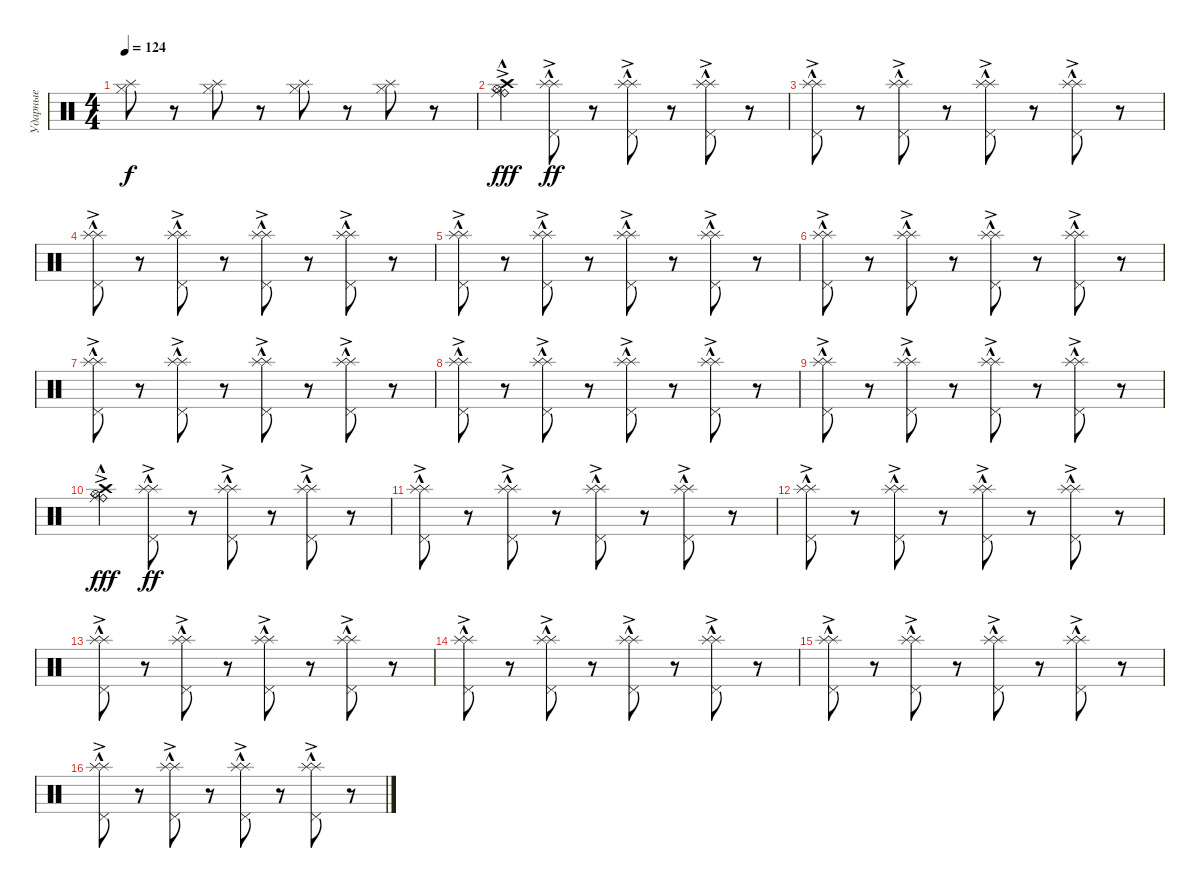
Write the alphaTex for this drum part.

\track ("Ударные" "Ударные") {instrument percussion}
\staff {score}
\articulation defaults
\ts (4 4)
\tempo 124
\clef neutral
\ks c
("Hi-Hat (closed)" "Splash (hit)").8{dy f} r.8 ("Hi-Hat (closed)" "Splash (hit)").8 r.8 ("Hi-Hat (closed)" "Splash (hit)").8 r.8 ("Hi-Hat (closed)" "Splash (hit)").8 r.8 |
("Ride (bell)"{ac} "Ride (middle)"{hac} "Crash high (hit)" "Hi-Hat (open)").4{dy fff} ("Pedal Hi-Hat (hit)" "Splash (hit)"{hac} "Splash (hit)"{ac}).8{dy ff} r.8 ("Pedal Hi-Hat (hit)" "Splash (hit)"{hac} "Splash (hit)"{ac}).8 r.8 ("Pedal Hi-Hat (hit)" "Splash (hit)"{hac} "Splash (hit)"{ac}).8 r.8 |
("Pedal Hi-Hat (hit)" "Splash (hit)"{hac} "Splash (hit)"{ac}).8 r.8 ("Pedal Hi-Hat (hit)" "Splash (hit)"{hac} "Splash (hit)"{ac}).8 r.8 ("Pedal Hi-Hat (hit)" "Splash (hit)"{hac} "Splash (hit)"{ac}).8 r.8 ("Pedal Hi-Hat (hit)" "Splash (hit)"{hac} "Splash (hit)"{ac}).8 r.8 |
("Pedal Hi-Hat (hit)" "Splash (hit)"{hac} "Splash (hit)"{ac}).8 r.8 ("Pedal Hi-Hat (hit)" "Splash (hit)"{hac} "Splash (hit)"{ac}).8 r.8 ("Pedal Hi-Hat (hit)" "Splash (hit)"{hac} "Splash (hit)"{ac}).8 r.8 ("Pedal Hi-Hat (hit)" "Splash (hit)"{hac} "Splash (hit)"{ac}).8 r.8 |
("Pedal Hi-Hat (hit)" "Splash (hit)"{hac} "Splash (hit)"{ac}).8 r.8 ("Pedal Hi-Hat (hit)" "Splash (hit)"{hac} "Splash (hit)"{ac}).8 r.8 ("Pedal Hi-Hat (hit)" "Splash (hit)"{hac} "Splash (hit)"{ac}).8 r.8 ("Pedal Hi-Hat (hit)" "Splash (hit)"{hac} "Splash (hit)"{ac}).8 r.8 |
("Pedal Hi-Hat (hit)" "Splash (hit)"{hac} "Splash (hit)"{ac}).8 r.8 ("Pedal Hi-Hat (hit)" "Splash (hit)"{hac} "Splash (hit)"{ac}).8 r.8 ("Pedal Hi-Hat (hit)" "Splash (hit)"{hac} "Splash (hit)"{ac}).8 r.8 ("Pedal Hi-Hat (hit)" "Splash (hit)"{hac} "Splash (hit)"{ac}).8 r.8 |
("Pedal Hi-Hat (hit)" "Splash (hit)"{hac} "Splash (hit)"{ac}).8 r.8 ("Pedal Hi-Hat (hit)" "Splash (hit)"{hac} "Splash (hit)"{ac}).8 r.8 ("Pedal Hi-Hat (hit)" "Splash (hit)"{hac} "Splash (hit)"{ac}).8 r.8 ("Pedal Hi-Hat (hit)" "Splash (hit)"{hac} "Splash (hit)"{ac}).8 r.8 |
("Pedal Hi-Hat (hit)" "Splash (hit)"{hac} "Splash (hit)"{ac}).8 r.8 ("Pedal Hi-Hat (hit)" "Splash (hit)"{hac} "Splash (hit)"{ac}).8 r.8 ("Pedal Hi-Hat (hit)" "Splash (hit)"{hac} "Splash (hit)"{ac}).8 r.8 ("Pedal Hi-Hat (hit)" "Splash (hit)"{hac} "Splash (hit)"{ac}).8 r.8 |
("Pedal Hi-Hat (hit)" "Splash (hit)"{hac} "Splash (hit)"{ac}).8 r.8 ("Pedal Hi-Hat (hit)" "Splash (hit)"{hac} "Splash (hit)"{ac}).8 r.8 ("Pedal Hi-Hat (hit)" "Splash (hit)"{hac} "Splash (hit)"{ac}).8 r.8 ("Pedal Hi-Hat (hit)" "Splash (hit)"{hac} "Splash (hit)"{ac}).8 r.8 |
("Ride (bell)"{ac} "Ride (middle)"{hac} "Crash high (hit)" "Hi-Hat (open)").4{dy fff} ("Pedal Hi-Hat (hit)" "Splash (hit)"{hac} "Splash (hit)"{ac}).8{dy ff} r.8 ("Pedal Hi-Hat (hit)" "Splash (hit)"{hac} "Splash (hit)"{ac}).8 r.8 ("Pedal Hi-Hat (hit)" "Splash (hit)"{hac} "Splash (hit)"{ac}).8 r.8 |
("Pedal Hi-Hat (hit)" "Splash (hit)"{hac} "Splash (hit)"{ac}).8 r.8 ("Pedal Hi-Hat (hit)" "Splash (hit)"{hac} "Splash (hit)"{ac}).8 r.8 ("Pedal Hi-Hat (hit)" "Splash (hit)"{hac} "Splash (hit)"{ac}).8 r.8 ("Pedal Hi-Hat (hit)" "Splash (hit)"{hac} "Splash (hit)"{ac}).8 r.8 |
("Pedal Hi-Hat (hit)" "Splash (hit)"{hac} "Splash (hit)"{ac}).8 r.8 ("Pedal Hi-Hat (hit)" "Splash (hit)"{hac} "Splash (hit)"{ac}).8 r.8 ("Pedal Hi-Hat (hit)" "Splash (hit)"{hac} "Splash (hit)"{ac}).8 r.8 ("Pedal Hi-Hat (hit)" "Splash (hit)"{hac} "Splash (hit)"{ac}).8 r.8 |
("Pedal Hi-Hat (hit)" "Splash (hit)"{hac} "Splash (hit)"{ac}).8 r.8 ("Pedal Hi-Hat (hit)" "Splash (hit)"{hac} "Splash (hit)"{ac}).8 r.8 ("Pedal Hi-Hat (hit)" "Splash (hit)"{hac} "Splash (hit)"{ac}).8 r.8 ("Pedal Hi-Hat (hit)" "Splash (hit)"{hac} "Splash (hit)"{ac}).8 r.8 |
("Pedal Hi-Hat (hit)" "Splash (hit)"{hac} "Splash (hit)"{ac}).8 r.8 ("Pedal Hi-Hat (hit)" "Splash (hit)"{hac} "Splash (hit)"{ac}).8 r.8 ("Pedal Hi-Hat (hit)" "Splash (hit)"{hac} "Splash (hit)"{ac}).8 r.8 ("Pedal Hi-Hat (hit)" "Splash (hit)"{hac} "Splash (hit)"{ac}).8 r.8 |
("Pedal Hi-Hat (hit)" "Splash (hit)"{hac} "Splash (hit)"{ac}).8 r.8 ("Pedal Hi-Hat (hit)" "Splash (hit)"{hac} "Splash (hit)"{ac}).8 r.8 ("Pedal Hi-Hat (hit)" "Splash (hit)"{hac} "Splash (hit)"{ac}).8 r.8 ("Pedal Hi-Hat (hit)" "Splash (hit)"{hac} "Splash (hit)"{ac}).8 r.8 |
("Pedal Hi-Hat (hit)" "Splash (hit)"{hac} "Splash (hit)"{ac}).8 r.8 ("Pedal Hi-Hat (hit)" "Splash (hit)"{hac} "Splash (hit)"{ac}).8 r.8 ("Pedal Hi-Hat (hit)" "Splash (hit)"{hac} "Splash (hit)"{ac}).8 r.8 ("Pedal Hi-Hat (hit)" "Splash (hit)"{hac} "Splash (hit)"{ac}).8 r.8
